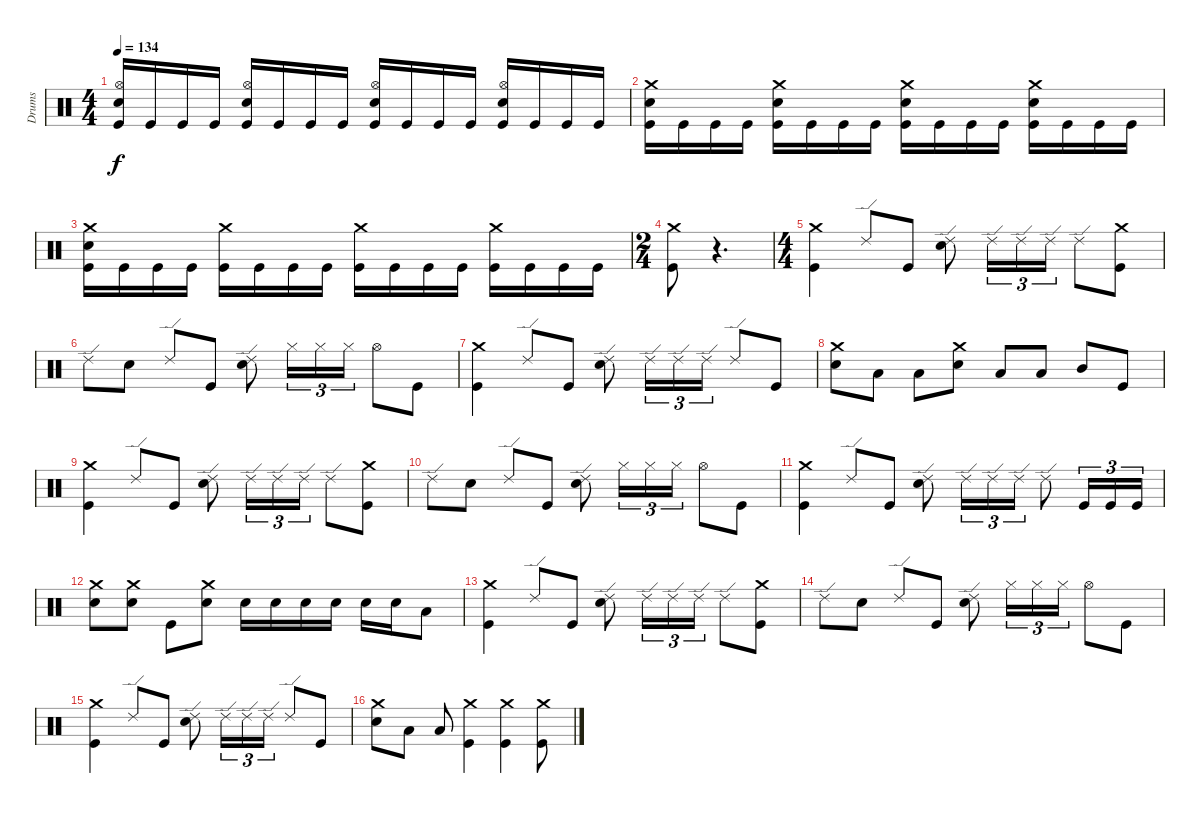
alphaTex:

\track ("Drums" "Drums") {instrument percussion}
\staff {score}
\articulation defaults
\ts (4 4)
\tempo 134
\clef neutral
\ks c
("Snare (hit) 2" "Hi-Hat (open)" "Kick (hit)").16{dy f} "Kick (hit)".16 "Kick (hit)".16 "Kick (hit)".16 ("Snare (hit) 2" "Hi-Hat (open)" "Kick (hit)").16 "Kick (hit)".16 "Kick (hit)".16 "Kick (hit)".16 ("Snare (hit) 2" "Hi-Hat (open)" "Kick (hit)").16 "Kick (hit)".16 "Kick (hit)".16 "Kick (hit)".16 ("Snare (hit) 2" "Hi-Hat (open)" "Kick (hit)").16 "Kick (hit)".16 "Kick (hit)".16 "Kick (hit)".16 |
("Snare (hit) 2" "Crash medium (hit)" "Kick (hit)").16 "Kick (hit)".16 "Kick (hit)".16 "Kick (hit)".16 ("Snare (hit) 2" "Crash medium (hit)" "Kick (hit)").16 "Kick (hit)".16 "Kick (hit)".16 "Kick (hit)".16 ("Snare (hit) 2" "Crash medium (hit)" "Kick (hit)").16 "Kick (hit)".16 "Kick (hit)".16 "Kick (hit)".16 ("Snare (hit) 2" "Crash medium (hit)" "Kick (hit)").16 "Kick (hit)".16 "Kick (hit)".16 "Kick (hit)".16 |
("Snare (hit) 2" "Crash medium (hit)" "Kick (hit)").16 "Kick (hit)".16 "Kick (hit)".16 "Kick (hit)".16 ("Crash medium (hit)" "Kick (hit)").16 "Kick (hit)".16 "Kick (hit)".16 "Kick (hit)".16 ("Crash medium (hit)" "Kick (hit)").16 "Kick (hit)".16 "Kick (hit)".16 "Kick (hit)".16 ("Crash medium (hit)" "Kick (hit)").16 "Kick (hit)".16 "Kick (hit)".16 "Kick (hit)".16 |
\ts (2 4)
("Crash medium (hit)" "Kick (hit)").8 r.4{d volume 0} |
\ts (4 4)
("Crash medium (hit)" "Kick (hit)").4{volume 8} "Ride (edge) 2".8 "Kick (hit)".8 ("Ride (edge) 2" "Snare (hit) 2").8 "Ride (edge) 2".16{tu (3 2)} "Ride (edge) 2".16{tu (3 2)} "Ride (edge) 2".16{tu (3 2)} "Ride (edge) 2".8 ("Crash medium (hit)" "Kick (hit)").8 |
"Ride (edge) 2".8 "Snare (hit) 2".8 "Ride (edge) 2".8 "Kick (hit)".8 ("Ride (edge) 2" "Snare (hit) 2").8 "Hi-Hat (closed)".16{tu (3 2)} "Hi-Hat (closed)".16{tu (3 2)} "Hi-Hat (closed)".16{tu (3 2)} "Hi-Hat (open)".8 "Kick (hit)".8 |
("Crash medium (hit)" "Kick (hit)").4 "Ride (edge) 2".8 "Kick (hit)".8 ("Ride (edge) 2" "Snare (hit) 2").8 "Ride (edge) 2".16{tu (3 2)} "Ride (edge) 2".16{tu (3 2)} "Ride (edge) 2".16{tu (3 2)} "Ride (edge) 2".8 "Kick (hit)".8 |
("Crash medium (hit)" "Snare (hit) 2").8 "Low Floor Tom (hit)".8 "Low Tom (hit)".8 ("Crash medium (hit)" "Snare (hit) 2").8 "Low Floor Tom (hit)".8 "Low Tom (hit)".8 "Mid Tom (hit)".8 "Kick (hit)".8 |
("Crash medium (hit)" "Kick (hit)").4 "Ride (edge) 2".8 "Kick (hit)".8 ("Ride (edge) 2" "Snare (hit) 2").8 "Ride (edge) 2".16{tu (3 2)} "Ride (edge) 2".16{tu (3 2)} "Ride (edge) 2".16{tu (3 2)} "Ride (edge) 2".8 ("Crash medium (hit)" "Kick (hit)").8 |
"Ride (edge) 2".8 "Snare (hit) 2".8 "Ride (edge) 2".8 "Kick (hit)".8 ("Ride (edge) 2" "Snare (hit) 2").8 "Hi-Hat (closed)".16{tu (3 2)} "Hi-Hat (closed)".16{tu (3 2)} "Hi-Hat (closed)".16{tu (3 2)} "Hi-Hat (open)".8 "Kick (hit)".8 |
("Crash medium (hit)" "Kick (hit)").4 "Ride (edge) 2".8 "Kick (hit)".8 ("Ride (edge) 2" "Snare (hit) 2").8 "Ride (edge) 2".16{tu (3 2)} "Ride (edge) 2".16{tu (3 2)} "Ride (edge) 2".16{tu (3 2)} "Ride (edge) 2".8 "Kick (hit)".16{tu (3 2)} "Kick (hit)".16{tu (3 2)} "Kick (hit)".16{tu (3 2)} |
("Crash medium (hit)" "Snare (hit) 2").8 ("Crash medium (hit)" "Snare (hit) 2").8 "Kick (hit)".8 ("Crash medium (hit)" "Snare (hit) 2").8 "Snare (hit) 2".16 "Snare (hit) 2".16 "Snare (hit) 2".16 "Snare (hit) 2".16 "Snare (hit) 2".16 "Snare (hit) 2".16 "Low Tom (hit)".8 |
("Crash medium (hit)" "Kick (hit)").4 "Ride (edge) 2".8 "Kick (hit)".8 ("Ride (edge) 2" "Snare (hit) 2").8 "Ride (edge) 2".16{tu (3 2)} "Ride (edge) 2".16{tu (3 2)} "Ride (edge) 2".16{tu (3 2)} "Ride (edge) 2".8 ("Crash medium (hit)" "Kick (hit)").8 |
"Ride (edge) 2".8 "Snare (hit) 2".8 "Ride (edge) 2".8 "Kick (hit)".8 ("Ride (edge) 2" "Snare (hit) 2").8 "Hi-Hat (closed)".16{tu (3 2)} "Hi-Hat (closed)".16{tu (3 2)} "Hi-Hat (closed)".16{tu (3 2)} "Hi-Hat (open)".8 "Kick (hit)".8 |
("Crash medium (hit)" "Kick (hit)").4 "Ride (edge) 2".8 "Kick (hit)".8 ("Ride (edge) 2" "Snare (hit) 2").8 "Ride (edge) 2".16{tu (3 2)} "Ride (edge) 2".16{tu (3 2)} "Ride (edge) 2".16{tu (3 2)} "Ride (edge) 2".8 "Kick (hit)".8 |
("Crash medium (hit)" "Snare (hit) 2").8 "Low Floor Tom (hit)".8 "Low Tom (hit)".8 ("Crash medium (hit)" "Kick (hit)").4 ("Crash medium (hit)" "Kick (hit)").4 ("Crash medium (hit)" "Kick (hit)").8
